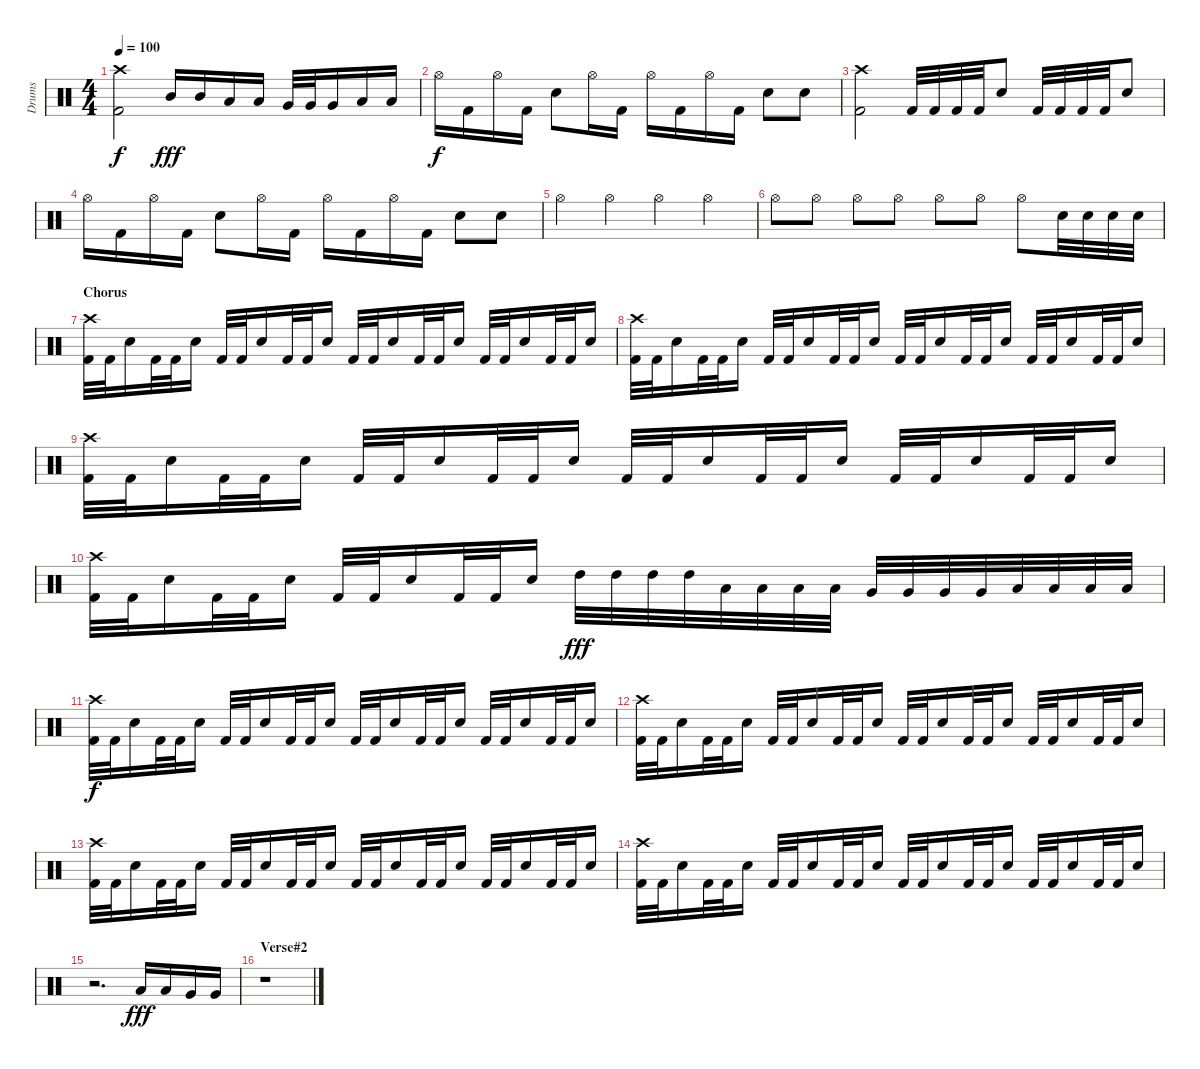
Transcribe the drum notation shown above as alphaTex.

\track ("Drums" "Drums") {instrument percussion}
\staff {score}
\articulation defaults
\ts (4 4)
\tempo 100
\clef neutral
\ks c
("Crash high (hit)" "Kick (hit) 2").2{dy f} "Mid Tom (hit)".16{dy fff} "Mid Tom (hit)".16 "Low Tom (hit)".16 "Low Tom (hit)".16 "Very Low Tom (hit)".32 "Very Low Tom (hit)".32 "Very Low Tom (hit)".16 "Low Floor Tom (hit)".16 "Low Floor Tom (hit)".16 |
"Hi-Hat (open)".16{dy f} "Kick (hit) 2".16 "Hi-Hat (open)".16 "Kick (hit) 2".16 "Snare (hit) 2".8 "Hi-Hat (open)".16 "Kick (hit) 2".16 "Hi-Hat (open)".16 "Kick (hit) 2".16 "Hi-Hat (open)".16 "Kick (hit) 2".16 "Snare (hit) 2".8 "Snare (hit) 2".8 |
("Crash high (hit)" "Kick (hit) 2").2 "Kick (hit) 2".32 "Kick (hit) 2".32 "Kick (hit) 2".32 "Kick (hit) 2".32 "Snare (hit) 2".8 "Kick (hit) 2".32 "Kick (hit) 2".32 "Kick (hit) 2".32 "Kick (hit) 2".32 "Snare (hit) 2".8 |
"Hi-Hat (open)".16 "Kick (hit) 2".16 "Hi-Hat (open)".16 "Kick (hit) 2".16 "Snare (hit) 2".8 "Hi-Hat (open)".16 "Kick (hit) 2".16 "Hi-Hat (open)".16 "Kick (hit) 2".16 "Hi-Hat (open)".16 "Kick (hit) 2".16 "Snare (hit) 2".8 "Snare (hit) 2".8 |
"Hi-Hat (open)".4 "Hi-Hat (open)".4 "Hi-Hat (open)".4 "Hi-Hat (open)".4 |
"Hi-Hat (open)".8 "Hi-Hat (open)".8 "Hi-Hat (open)".8 "Hi-Hat (open)".8 "Hi-Hat (open)".8 "Hi-Hat (open)".8 "Hi-Hat (open)".8 "Snare (hit) 2".32 "Snare (hit) 2".32 "Snare (hit) 2".32 "Snare (hit) 2".32 |
\section ("" "Chorus")
("Crash high (hit)" "Kick (hit) 2").32 "Kick (hit) 2".32 "Snare (hit) 2".16 "Kick (hit) 2".32 "Kick (hit) 2".32 "Snare (hit) 2".16 "Kick (hit) 2".32 "Kick (hit) 2".32 "Snare (hit) 2".16 "Kick (hit) 2".32 "Kick (hit) 2".32 "Snare (hit) 2".16 "Kick (hit) 2".32 "Kick (hit) 2".32 "Snare (hit) 2".16 "Kick (hit) 2".32 "Kick (hit) 2".32 "Snare (hit) 2".16 "Kick (hit) 2".32 "Kick (hit) 2".32 "Snare (hit) 2".16 "Kick (hit) 2".32 "Kick (hit) 2".32 "Snare (hit) 2".16 |
("Crash high (hit)" "Kick (hit) 2").32 "Kick (hit) 2".32 "Snare (hit) 2".16 "Kick (hit) 2".32 "Kick (hit) 2".32 "Snare (hit) 2".16 "Kick (hit) 2".32 "Kick (hit) 2".32 "Snare (hit) 2".16 "Kick (hit) 2".32 "Kick (hit) 2".32 "Snare (hit) 2".16 "Kick (hit) 2".32 "Kick (hit) 2".32 "Snare (hit) 2".16 "Kick (hit) 2".32 "Kick (hit) 2".32 "Snare (hit) 2".16 "Kick (hit) 2".32 "Kick (hit) 2".32 "Snare (hit) 2".16 "Kick (hit) 2".32 "Kick (hit) 2".32 "Snare (hit) 2".16 |
("Crash high (hit)" "Kick (hit) 2").32 "Kick (hit) 2".32 "Snare (hit) 2".16 "Kick (hit) 2".32 "Kick (hit) 2".32 "Snare (hit) 2".16 "Kick (hit) 2".32 "Kick (hit) 2".32 "Snare (hit) 2".16 "Kick (hit) 2".32 "Kick (hit) 2".32 "Snare (hit) 2".16 "Kick (hit) 2".32 "Kick (hit) 2".32 "Snare (hit) 2".16 "Kick (hit) 2".32 "Kick (hit) 2".32 "Snare (hit) 2".16 "Kick (hit) 2".32 "Kick (hit) 2".32 "Snare (hit) 2".16 "Kick (hit) 2".32 "Kick (hit) 2".32 "Snare (hit) 2".16 |
("Crash high (hit)" "Kick (hit) 2").32 "Kick (hit) 2".32 "Snare (hit) 2".16 "Kick (hit) 2".32 "Kick (hit) 2".32 "Snare (hit) 2".16 "Kick (hit) 2".32 "Kick (hit) 2".32 "Snare (hit) 2".16 "Kick (hit) 2".32 "Kick (hit) 2".32 "Snare (hit) 2".16 "High Tom (hit)".32{dy fff} "High Tom (hit)".32 "High Tom (hit)".32 "High Tom (hit)".32 "Low Tom (hit)".32 "Low Tom (hit)".32 "Low Tom (hit)".32 "Low Tom (hit)".32 "Very Low Tom (hit)".32 "Very Low Tom (hit)".32 "Very Low Tom (hit)".32 "Very Low Tom (hit)".32 "Low Floor Tom (hit)".32 "Low Floor Tom (hit)".32 "Low Floor Tom (hit)".32 "Low Floor Tom (hit)".32 |
("Crash high (hit)" "Kick (hit) 2").32{dy f} "Kick (hit) 2".32 "Snare (hit) 2".16 "Kick (hit) 2".32 "Kick (hit) 2".32 "Snare (hit) 2".16 "Kick (hit) 2".32 "Kick (hit) 2".32 "Snare (hit) 2".16 "Kick (hit) 2".32 "Kick (hit) 2".32 "Snare (hit) 2".16 "Kick (hit) 2".32 "Kick (hit) 2".32 "Snare (hit) 2".16 "Kick (hit) 2".32 "Kick (hit) 2".32 "Snare (hit) 2".16 "Kick (hit) 2".32 "Kick (hit) 2".32 "Snare (hit) 2".16 "Kick (hit) 2".32 "Kick (hit) 2".32 "Snare (hit) 2".16 |
("Crash high (hit)" "Kick (hit) 2").32 "Kick (hit) 2".32 "Snare (hit) 2".16 "Kick (hit) 2".32 "Kick (hit) 2".32 "Snare (hit) 2".16 "Kick (hit) 2".32 "Kick (hit) 2".32 "Snare (hit) 2".16 "Kick (hit) 2".32 "Kick (hit) 2".32 "Snare (hit) 2".16 "Kick (hit) 2".32 "Kick (hit) 2".32 "Snare (hit) 2".16 "Kick (hit) 2".32 "Kick (hit) 2".32 "Snare (hit) 2".16 "Kick (hit) 2".32 "Kick (hit) 2".32 "Snare (hit) 2".16 "Kick (hit) 2".32 "Kick (hit) 2".32 "Snare (hit) 2".16 |
("Crash high (hit)" "Kick (hit) 2").32 "Kick (hit) 2".32 "Snare (hit) 2".16 "Kick (hit) 2".32 "Kick (hit) 2".32 "Snare (hit) 2".16 "Kick (hit) 2".32 "Kick (hit) 2".32 "Snare (hit) 2".16 "Kick (hit) 2".32 "Kick (hit) 2".32 "Snare (hit) 2".16 "Kick (hit) 2".32 "Kick (hit) 2".32 "Snare (hit) 2".16 "Kick (hit) 2".32 "Kick (hit) 2".32 "Snare (hit) 2".16 "Kick (hit) 2".32 "Kick (hit) 2".32 "Snare (hit) 2".16 "Kick (hit) 2".32 "Kick (hit) 2".32 "Snare (hit) 2".16 |
("Crash high (hit)" "Kick (hit) 2").32 "Kick (hit) 2".32 "Snare (hit) 2".16 "Kick (hit) 2".32 "Kick (hit) 2".32 "Snare (hit) 2".16 "Kick (hit) 2".32 "Kick (hit) 2".32 "Snare (hit) 2".16 "Kick (hit) 2".32 "Kick (hit) 2".32 "Snare (hit) 2".16 "Kick (hit) 2".32 "Kick (hit) 2".32 "Snare (hit) 2".16 "Kick (hit) 2".32 "Kick (hit) 2".32 "Snare (hit) 2".16 "Kick (hit) 2".32 "Kick (hit) 2".32 "Snare (hit) 2".16 "Kick (hit) 2".32 "Kick (hit) 2".32 "Snare (hit) 2".16 |
r.2{d} "Low Tom (hit)".16{dy fff} "Low Tom (hit)".16 "Very Low Tom (hit)".16 "Very Low Tom (hit)".16 |
\section ("" "Verse#2")
r.1
